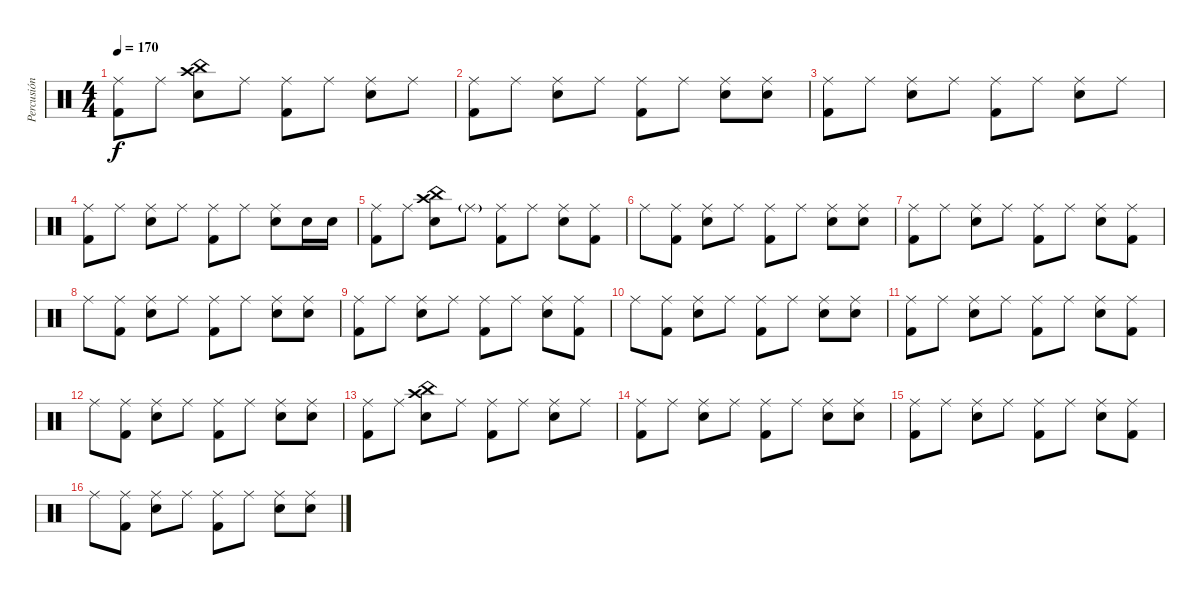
\track ("Percusión" "Percusión") {instrument percussion}
\staff {score}
\articulation defaults
\ts (4 4)
\tempo 170
\clef neutral
\ks c
("Ride (middle)" "Kick (hit) 2").8{dy f} "Ride (middle)".8 ("Crash high (hit)" "China (hit)" "Electric Snare (hit)").8 "Ride (middle)".8 ("Ride (middle)" "Kick (hit) 2").8 "Ride (middle)".8 ("Ride (middle)" "Electric Snare (hit)").8 "Ride (middle)".8 |
("Ride (middle)" "Kick (hit) 2").8 "Ride (middle)".8 ("Ride (middle)" "Electric Snare (hit)").8 "Ride (middle)".8 ("Ride (middle)" "Kick (hit) 2").8 "Ride (middle)".8 ("Ride (middle)" "Electric Snare (hit)").8 ("Ride (middle)" "Electric Snare (hit)").8 |
("Ride (middle)" "Kick (hit) 2").8 "Ride (middle)".8 ("Ride (middle)" "Electric Snare (hit)").8 "Ride (middle)".8 ("Ride (middle)" "Kick (hit) 2").8 "Ride (middle)".8 ("Ride (middle)" "Electric Snare (hit)").8 "Ride (middle)".8 |
("Ride (middle)" "Kick (hit) 2").8 "Ride (middle)".8 ("Ride (middle)" "Electric Snare (hit)").8 "Ride (middle)".8 ("Ride (middle)" "Kick (hit) 2").8 "Ride (middle)".8 ("Ride (middle)" "Electric Snare (hit)").8 "Electric Snare (hit)".16 "Electric Snare (hit)".16 |
("Ride (middle)" "Kick (hit) 2").8 "Ride (middle)".8 ("Crash high (hit)" "China (hit)" "Electric Snare (hit)").8 "Ride (middle)"{g}.8 ("Ride (middle)" "Kick (hit) 2").8 "Ride (middle)".8 ("Ride (middle)" "Electric Snare (hit)").8 ("Ride (middle)" "Kick (hit) 2").8 |
"Ride (middle)".8 ("Ride (middle)" "Kick (hit) 2").8 ("Ride (middle)" "Electric Snare (hit)").8 "Ride (middle)".8 ("Ride (middle)" "Kick (hit) 2").8 "Ride (middle)".8 ("Ride (middle)" "Electric Snare (hit)").8 ("Ride (middle)" "Electric Snare (hit)").8 |
("Ride (middle)" "Kick (hit) 2").8 "Ride (middle)".8 ("Ride (middle)" "Electric Snare (hit)").8 "Ride (middle)".8 ("Ride (middle)" "Kick (hit) 2").8 "Ride (middle)".8 ("Ride (middle)" "Electric Snare (hit)").8 ("Ride (middle)" "Kick (hit) 2").8 |
"Ride (middle)".8 ("Ride (middle)" "Kick (hit) 2").8 ("Ride (middle)" "Electric Snare (hit)").8 "Ride (middle)".8 ("Ride (middle)" "Kick (hit) 2").8 "Ride (middle)".8 ("Ride (middle)" "Electric Snare (hit)").8 ("Ride (middle)" "Electric Snare (hit)").8 |
("Ride (middle)" "Kick (hit) 2").8 "Ride (middle)".8 ("Ride (middle)" "Electric Snare (hit)").8 "Ride (middle)".8 ("Ride (middle)" "Kick (hit) 2").8 "Ride (middle)".8 ("Ride (middle)" "Electric Snare (hit)").8 ("Ride (middle)" "Kick (hit) 2").8 |
"Ride (middle)".8 ("Ride (middle)" "Kick (hit) 2").8 ("Ride (middle)" "Electric Snare (hit)").8 "Ride (middle)".8 ("Ride (middle)" "Kick (hit) 2").8 "Ride (middle)".8 ("Ride (middle)" "Electric Snare (hit)").8 ("Ride (middle)" "Electric Snare (hit)").8 |
("Ride (middle)" "Kick (hit) 2").8 "Ride (middle)".8 ("Ride (middle)" "Electric Snare (hit)").8 "Ride (middle)".8 ("Ride (middle)" "Kick (hit) 2").8 "Ride (middle)".8 ("Ride (middle)" "Electric Snare (hit)").8 ("Ride (middle)" "Kick (hit) 2").8 |
"Ride (middle)".8 ("Ride (middle)" "Kick (hit) 2").8 ("Ride (middle)" "Electric Snare (hit)").8 "Ride (middle)".8 ("Ride (middle)" "Kick (hit) 2").8 "Ride (middle)".8 ("Ride (middle)" "Electric Snare (hit)").8 ("Ride (middle)" "Electric Snare (hit)").8 |
("Ride (middle)" "Kick (hit) 2").8 "Ride (middle)".8 ("Crash high (hit)" "China (hit)" "Electric Snare (hit)").8 "Ride (middle)".8 ("Ride (middle)" "Kick (hit) 2").8 "Ride (middle)".8 ("Ride (middle)" "Electric Snare (hit)").8 "Ride (middle)".8 |
("Ride (middle)" "Kick (hit) 2").8 "Ride (middle)".8 ("Ride (middle)" "Electric Snare (hit)").8 "Ride (middle)".8 ("Ride (middle)" "Kick (hit) 2").8 "Ride (middle)".8 ("Ride (middle)" "Electric Snare (hit)").8 ("Ride (middle)" "Electric Snare (hit)").8 |
("Ride (middle)" "Kick (hit) 2").8 "Ride (middle)".8 ("Ride (middle)" "Electric Snare (hit)").8 "Ride (middle)".8 ("Ride (middle)" "Kick (hit) 2").8 "Ride (middle)".8 ("Ride (middle)" "Electric Snare (hit)").8 ("Ride (middle)" "Kick (hit) 2").8 |
"Ride (middle)".8 ("Ride (middle)" "Kick (hit) 2").8 ("Ride (middle)" "Electric Snare (hit)").8 "Ride (middle)".8 ("Ride (middle)" "Kick (hit) 2").8 "Ride (middle)".8 ("Ride (middle)" "Electric Snare (hit)").8 ("Ride (middle)" "Electric Snare (hit)").8
